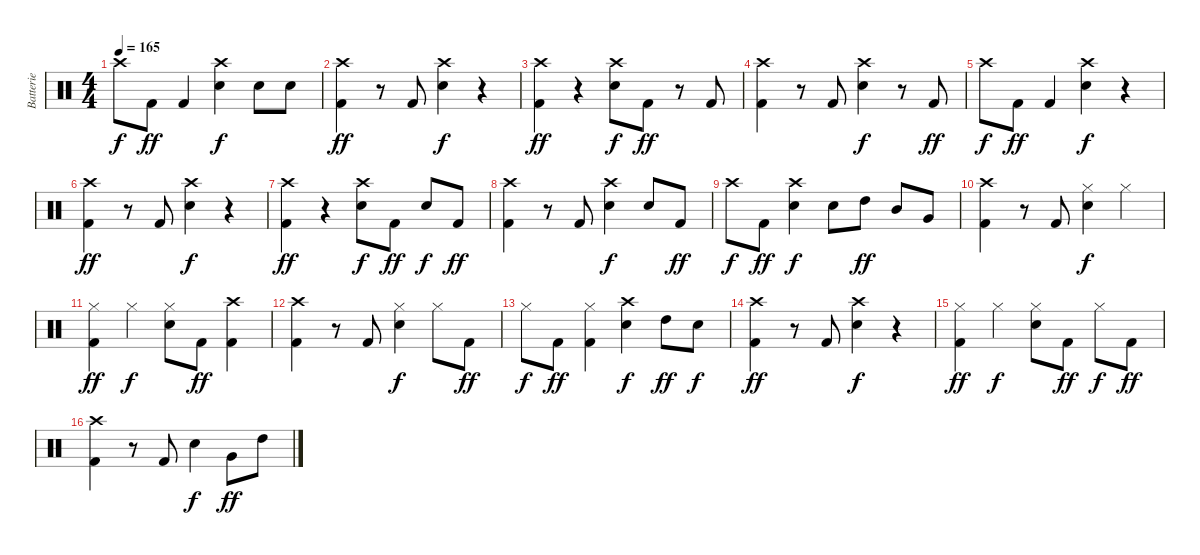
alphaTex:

\track ("Batterie" "Batterie") {instrument percussion}
\staff {score}
\articulation defaults
\ts (4 4)
\tempo 165
\clef neutral
\ks c "Crash high (hit)".8{dy f} "Kick (hit) 2".8{dy ff} "Kick (hit) 2".4
("Crash high (hit)" "Snare (hit) 2").4{dy f} "Snare (hit) 2".8 "Snare (hit) 2".8 |
("Crash high (hit)" "Kick (hit) 2").4{dy ff} r.8 "Kick (hit) 2".8 ("Crash high (hit)" "Snare (hit) 2").4{dy f} r.4 |
("Crash high (hit)" "Kick (hit) 2").4{dy ff} r.4 ("Crash high (hit)" "Snare (hit) 2").8{dy f} "Kick (hit) 2".8{dy ff} r.8 "Kick (hit) 2".8 |
("Crash high (hit)" "Kick (hit) 2").4 r.8 "Kick (hit) 2".8 ("Crash high (hit)" "Snare (hit) 2").4{dy f} r.8 "Kick (hit) 2".8{dy ff} |
"Crash high (hit)".8{dy f} "Kick (hit) 2".8{dy ff} "Kick (hit) 2".4 ("Crash high (hit)" "Snare (hit) 2").4{dy f} r.4 |
("Crash high (hit)" "Kick (hit) 2").4{dy ff} r.8 "Kick (hit) 2".8 ("Crash high (hit)" "Snare (hit) 2").4{dy f} r.4 |
("Crash high (hit)" "Kick (hit) 2").4{dy ff} r.4 ("Crash high (hit)" "Snare (hit) 2").8{dy f} "Kick (hit) 2".8{dy ff} "Snare (hit) 2".8{dy f} "Kick (hit) 2".8{dy ff} |
("Crash high (hit)" "Kick (hit) 2").4 r.8 "Kick (hit) 2".8 ("Crash high (hit)" "Snare (hit) 2").4{dy f} "Snare (hit) 2".8 "Kick (hit) 2".8{dy ff} |
"Crash high (hit)".8{dy f} "Kick (hit) 2".8{dy ff} ("Crash high (hit)" "Snare (hit) 2").4{dy f} "Snare (hit) 2".8 "High Tom (hit)".8{dy ff} "Mid Tom (hit)".8 "Very Low Tom (hit)".8 |
("Crash high (hit)" "Kick (hit) 2").4 r.8 "Kick (hit) 2".8 ("Hi-Hat (closed)" "Snare (hit) 2").4{dy f} "Hi-Hat (closed)".4 |
("Hi-Hat (closed)" "Kick (hit) 2").4{dy ff} "Hi-Hat (closed)".4{dy f} ("Hi-Hat (closed)" "Snare (hit) 2").8 "Kick (hit) 2".8{dy ff} ("Crash high (hit)" "Kick (hit) 2").4 |
("Crash high (hit)" "Kick (hit) 2").4 r.8 "Kick (hit) 2".8 ("Hi-Hat (closed)" "Snare (hit) 2").4{dy f} "Hi-Hat (closed)".8 "Kick (hit) 2".8{dy ff} |
"Hi-Hat (closed)".8{dy f} "Kick (hit) 2".8{dy ff} ("Hi-Hat (closed)" "Kick (hit) 2").4 ("Crash high (hit)" "Snare (hit) 2").4{dy f} "High Tom (hit)".8{dy ff} "Snare (hit) 2".8{dy f} |
("Crash high (hit)" "Kick (hit) 2").4{dy ff} r.8 "Kick (hit) 2".8 ("Crash high (hit)" "Snare (hit) 2").4{dy f} r.4 |
("Hi-Hat (closed)" "Kick (hit) 2").4{dy ff} "Hi-Hat (closed)".4{dy f} ("Hi-Hat (closed)" "Snare (hit) 2").8 "Kick (hit) 2".8{dy ff} "Hi-Hat (closed)".8{dy f} "Kick (hit) 2".8{dy ff} |
("Crash high (hit)" "Kick (hit) 2").4 r.8 "Kick (hit) 2".8 "Snare (hit) 2".4{dy f} "Very Low Tom (hit)".8{dy ff} "High Tom (hit)".8
